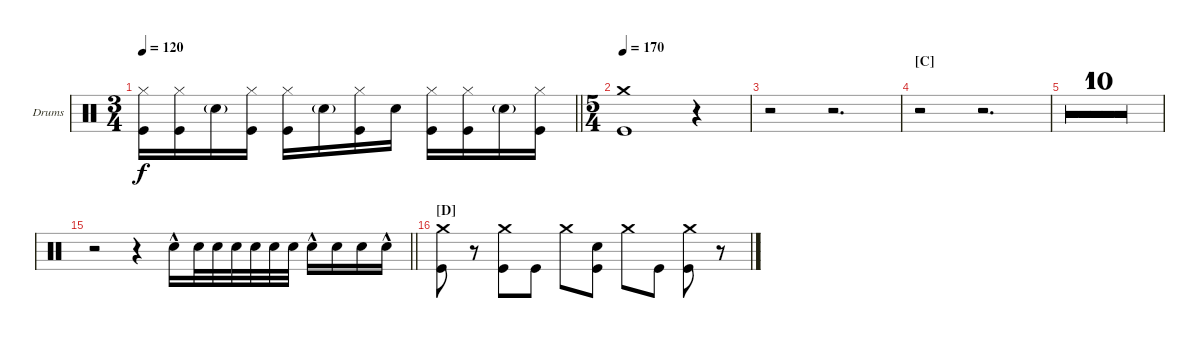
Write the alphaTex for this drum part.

\bracketExtendMode groupsimilarinstruments
\firstSystemTrackNameOrientation horizontal
\otherSystemsTrackNameOrientation horizontal
\track ("Drumkit" "Drums") {multiBarRest instrument percussion}
\staff {score}
\articulation defaults
\ts (3 4)
\beaming (8 2 2 2 2)
\tempo 120
\clef neutral
\barLineRight lightlight
\ks c
("Hi-Hat (closed)" "Kick (hit)").16{dy f} ("Hi-Hat (closed)" "Kick (hit)").16 "Snare (hit) 2"{g}.16 ("Hi-Hat (closed)" "Kick (hit)").16 ("Hi-Hat (closed)" "Kick (hit)").16 "Snare (hit) 2"{g}.16 ("Hi-Hat (closed)" "Kick (hit)").16 "Snare (hit) 2".16 ("Hi-Hat (closed)" "Kick (hit)").16 ("Hi-Hat (closed)" "Kick (hit)").16 "Snare (hit) 2"{g}.16 ("Hi-Hat (closed)" "Kick (hit)").16 |
\ts (5 4)
\tempo 170
("Crash medium (hit)" "Kick (hit)").1 r.4 |
r.2 r.2{d} |
\section ("C" "")
r.2 r.2{d} |
r.2 r.2{d} |
r.2 r.2{d} |
r.2 r.2{d} |
r.2 r.2{d} |
r.2 r.2{d} |
r.2 r.2{d} |
r.2 r.2{d} |
r.2 r.2{d} |
r.2 r.2{d} |
r.2 r.2{d} |
\barLineRight lightlight
r.2 r.4 "Snare (hit) 2"{hac}.16 "Snare (hit) 2".32 "Snare (hit) 2".32{beam splitsecondary} "Snare (hit) 2".32 "Snare (hit) 2".32 "Snare (hit) 2".32 "Snare (hit) 2".32{beam split} "Snare (hit) 2"{hac}.16 "Snare (hit) 2".16 "Snare (hit) 2".16 "Snare (hit) 2"{hac}.16 |
\section ("D" "")
("Crash medium (hit)" "Kick (hit)").8 r.8 ("Crash medium (hit)" "Kick (hit)").8 "Kick (hit)".8 "Crash medium (hit)".8 ("Snare (hit) 2" "Kick (hit)").8 "Crash medium (hit)".8 "Kick (hit)".8 ("Crash medium (hit)" "Kick (hit)").8 r.8
